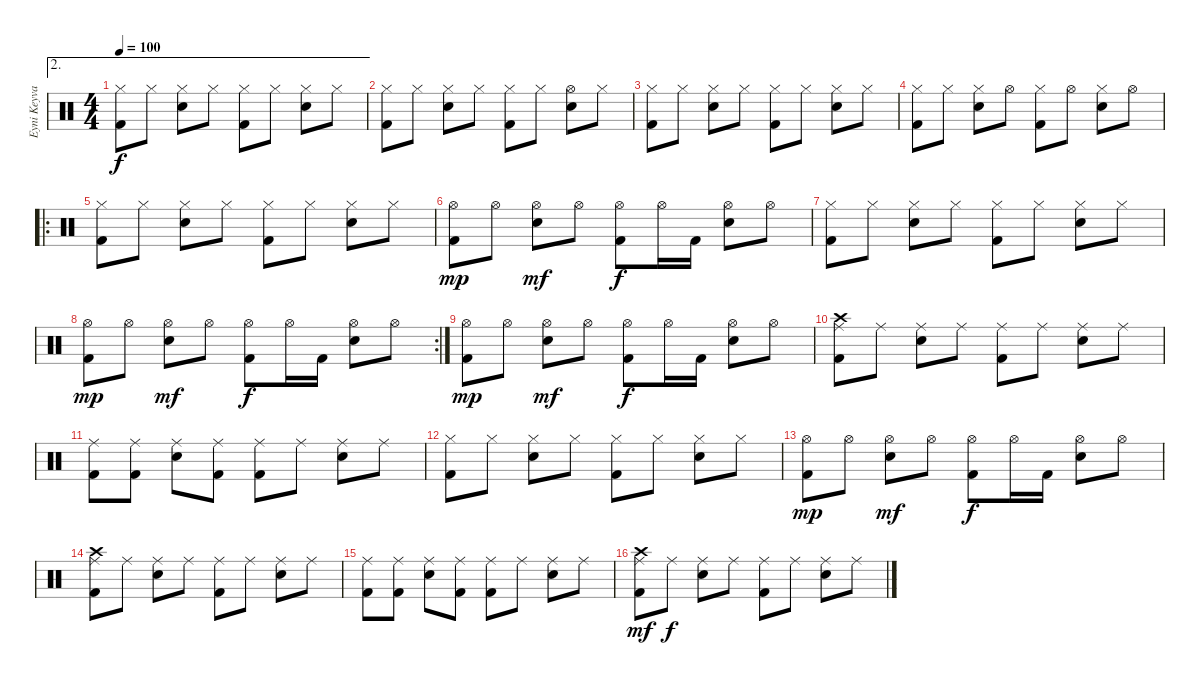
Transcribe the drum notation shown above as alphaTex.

\track ("Eyni Keyvanshokoh" "Eyni Keyva") {instrument percussion}
\staff {score}
\articulation defaults
\ae 2
\ts (4 4)
\tempo 100
\clef neutral
\ks c
("Hi-Hat (closed)" "Kick (hit) 2").8{dy f} "Hi-Hat (closed)".8 ("Hi-Hat (closed)" "Electric Snare (hit)").8 "Hi-Hat (closed)".8 ("Hi-Hat (closed)" "Kick (hit) 2").8 "Hi-Hat (closed)".8 ("Hi-Hat (closed)" "Electric Snare (hit)").8 "Hi-Hat (closed)".8 |
("Hi-Hat (closed)" "Kick (hit) 2").8 "Hi-Hat (closed)".8 ("Hi-Hat (closed)" "Electric Snare (hit)").8 "Hi-Hat (closed)".8 ("Hi-Hat (closed)" "Kick (hit) 2").8 "Hi-Hat (closed)".8 ("Hi-Hat (open)" "Electric Snare (hit)").8 "Hi-Hat (closed)".8 |
("Hi-Hat (closed)" "Kick (hit) 2").8 "Hi-Hat (closed)".8 ("Hi-Hat (closed)" "Electric Snare (hit)").8 "Hi-Hat (closed)".8 ("Hi-Hat (closed)" "Kick (hit) 2").8 "Hi-Hat (closed)".8 ("Hi-Hat (closed)" "Electric Snare (hit)").8 "Hi-Hat (closed)".8 |
("Hi-Hat (closed)" "Kick (hit) 2").8 "Hi-Hat (closed)".8 ("Hi-Hat (closed)" "Electric Snare (hit)").8 "Hi-Hat (open)".8 ("Hi-Hat (closed)" "Kick (hit) 2").8 "Hi-Hat (open)".8 ("Hi-Hat (closed)" "Electric Snare (hit)").8 "Hi-Hat (open)".8 |
\ro
("Hi-Hat (closed)" "Kick (hit) 2").8 "Hi-Hat (closed)".8 ("Hi-Hat (closed)" "Electric Snare (hit)").8 "Hi-Hat (closed)".8 ("Hi-Hat (closed)" "Kick (hit) 2").8 "Hi-Hat (closed)".8 ("Hi-Hat (closed)" "Electric Snare (hit)").8 "Hi-Hat (closed)".8 |
("Hi-Hat (open)" "Kick (hit) 2").8{dy mp} "Hi-Hat (open)".8 ("Hi-Hat (open)" "Electric Snare (hit)").8{dy mf} "Hi-Hat (open)".8 ("Hi-Hat (open)" "Kick (hit) 2").8{dy f} "Hi-Hat (open)".16 "Kick (hit) 2".16 ("Hi-Hat (open)" "Electric Snare (hit)").8 "Hi-Hat (open)".8 |
("Hi-Hat (closed)" "Kick (hit) 2").8 "Hi-Hat (closed)".8 ("Hi-Hat (closed)" "Electric Snare (hit)").8 "Hi-Hat (closed)".8 ("Hi-Hat (closed)" "Kick (hit) 2").8 "Hi-Hat (closed)".8 ("Hi-Hat (closed)" "Electric Snare (hit)").8 "Hi-Hat (closed)".8 |
\rc 2
("Hi-Hat (open)" "Kick (hit) 2").8{dy mp} "Hi-Hat (open)".8 ("Hi-Hat (open)" "Electric Snare (hit)").8{dy mf} "Hi-Hat (open)".8 ("Hi-Hat (open)" "Kick (hit) 2").8{dy f} "Hi-Hat (open)".16 "Kick (hit) 2".16 ("Hi-Hat (open)" "Electric Snare (hit)").8 "Hi-Hat (open)".8 |
("Hi-Hat (open)" "Kick (hit) 2").8{dy mp} "Hi-Hat (open)".8 ("Hi-Hat (open)" "Electric Snare (hit)").8{dy mf} "Hi-Hat (open)".8 ("Hi-Hat (open)" "Kick (hit) 2").8{dy f} "Hi-Hat (open)".16 "Kick (hit) 2".16 ("Hi-Hat (open)" "Electric Snare (hit)").8 "Hi-Hat (open)".8 |
("Crash high (hit)" "Ride (middle)" "Kick (hit) 2").8 "Ride (middle)".8 ("Ride (middle)" "Electric Snare (hit)").8 "Ride (middle)".8 ("Ride (middle)" "Kick (hit) 2").8 "Ride (middle)".8 ("Ride (middle)" "Electric Snare (hit)").8 "Ride (middle)".8 |
("Ride (middle)" "Kick (hit) 2").8 ("Ride (middle)" "Kick (hit) 2").8 ("Ride (middle)" "Electric Snare (hit)").8 ("Ride (middle)" "Kick (hit) 2").8 ("Ride (middle)" "Kick (hit) 2").8 "Ride (middle)".8 ("Ride (middle)" "Electric Snare (hit)").8 "Ride (middle)".8 |
("Hi-Hat (closed)" "Kick (hit) 2").8 "Hi-Hat (closed)".8 ("Hi-Hat (closed)" "Electric Snare (hit)").8 "Hi-Hat (closed)".8 ("Hi-Hat (closed)" "Kick (hit) 2").8 "Hi-Hat (closed)".8 ("Hi-Hat (closed)" "Electric Snare (hit)").8 "Hi-Hat (closed)".8 |
("Hi-Hat (open)" "Kick (hit) 2").8{dy mp} "Hi-Hat (open)".8 ("Hi-Hat (open)" "Electric Snare (hit)").8{dy mf} "Hi-Hat (open)".8 ("Hi-Hat (open)" "Kick (hit) 2").8{dy f} "Hi-Hat (open)".16 "Kick (hit) 2".16 ("Hi-Hat (open)" "Electric Snare (hit)").8 "Hi-Hat (open)".8 |
("Crash high (hit)" "Ride (middle)" "Kick (hit) 2").8 "Ride (middle)".8 ("Ride (middle)" "Electric Snare (hit)").8 "Ride (middle)".8 ("Ride (middle)" "Kick (hit) 2").8 "Ride (middle)".8 ("Ride (middle)" "Electric Snare (hit)").8 "Ride (middle)".8 |
("Ride (middle)" "Kick (hit) 2").8 ("Ride (middle)" "Kick (hit) 2").8 ("Ride (middle)" "Electric Snare (hit)").8 ("Ride (middle)" "Kick (hit) 2").8 ("Ride (middle)" "Kick (hit) 2").8 "Ride (middle)".8 ("Ride (middle)" "Electric Snare (hit)").8 "Ride (middle)".8 |
("Crash high (hit)" "Ride (middle)" "Kick (hit) 2").8{dy mf} "Ride (middle)".8{dy f} ("Ride (middle)" "Electric Snare (hit)").8 "Ride (middle)".8 ("Ride (middle)" "Kick (hit) 2").8 "Ride (middle)".8 ("Ride (middle)" "Electric Snare (hit)").8 "Ride (middle)".8
